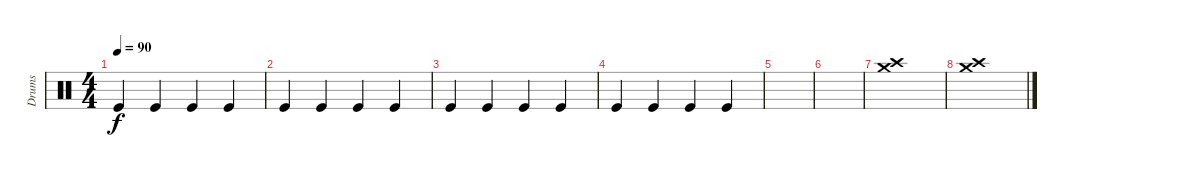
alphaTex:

\track ("Drums" "Drums") {instrument percussion}
\staff {score}
\articulation defaults
\ts (4 4)
\tempo 90
\clef neutral
\ks c "Kick (hit)".4{dy f} "Kick (hit)".4 "Kick (hit)".4 "Kick (hit)".4
|
"Kick (hit)".4 "Kick (hit)".4 "Kick (hit)".4 "Kick (hit)".4 |
"Kick (hit)".4 "Kick (hit)".4 "Kick (hit)".4 "Kick (hit)".4 |
"Kick (hit)".4 "Kick (hit)".4 "Kick (hit)".4 "Kick (hit)".4 |
|
|
("Crash medium (hit)" "Crash high (hit)").1 |
("Crash medium (hit)" "Crash high (hit)").1
